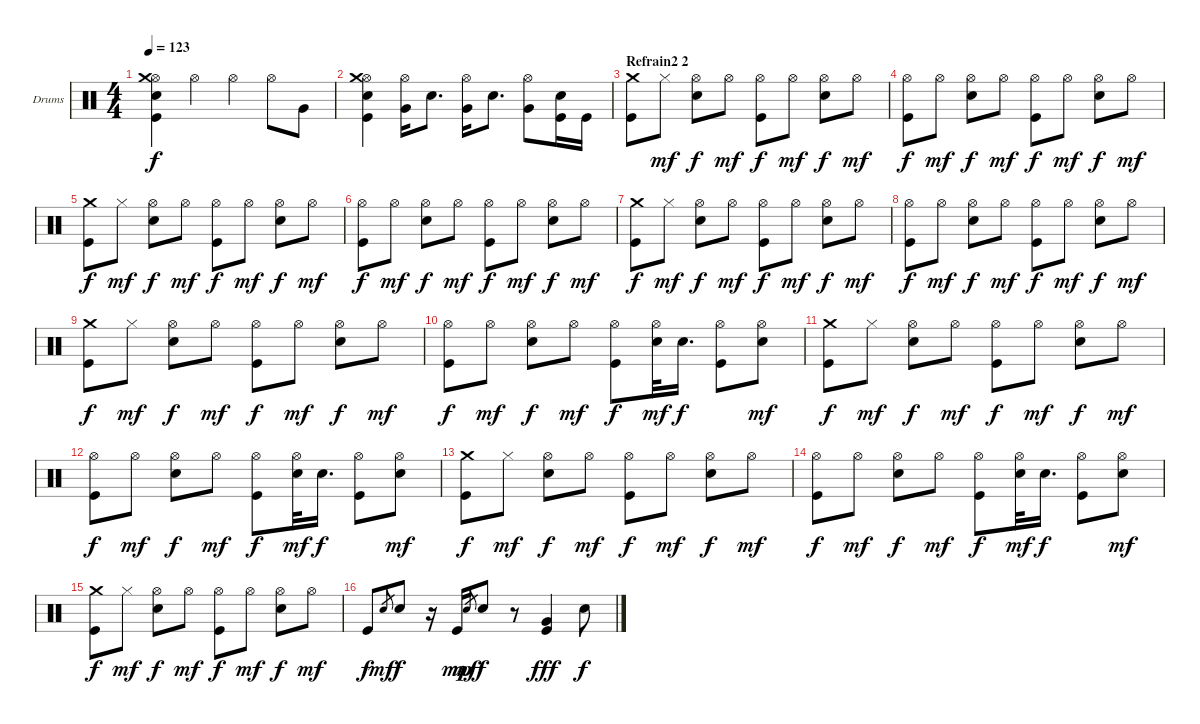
\bracketExtendMode groupsimilarinstruments
\firstSystemTrackNameOrientation horizontal
\otherSystemsTrackNameOrientation horizontal
\track ("Drumkit" "Drums") {instrument percussion}
\staff {score}
\articulation defaults
\ts (4 4)
\tempo 123
\clef neutral
\ks c
("Hi-Hat (open)" "Crash medium (hit)" "Snare (hit) 2" "Kick (hit)").4{dy f} "Hi-Hat (open)".4 "Hi-Hat (open)".4 "Hi-Hat (open)".8 "Very Low Tom (hit)".8 |
("Hi-Hat (open)" "Crash medium (hit)" "Snare (hit) 2" "Kick (hit)").4 ("Hi-Hat (open)" "Very Low Tom (hit)").16 "Snare (hit) 2".8{d} ("Hi-Hat (open)" "Very Low Tom (hit)").16 "Snare (hit) 2".8{d} ("Hi-Hat (open)" "Very Low Tom (hit)").8 ("Snare (hit) 2" "Kick (hit)").16 "Kick (hit)".16 |
\section ("" "Refrain2 2")
("Crash medium (hit)" "Kick (hit)").8 "Hi-Hat (closed)".8{dy mf} ("Hi-Hat (open)" "Snare (hit) 2").8{dy f} "Hi-Hat (open)".8{dy mf} ("Hi-Hat (open)" "Kick (hit)").8{dy f} "Hi-Hat (open)".8{dy mf} ("Hi-Hat (open)" "Snare (hit) 2").8{dy f} "Hi-Hat (open)".8{dy mf} |
("Hi-Hat (open)" "Kick (hit)").8{dy f} "Hi-Hat (open)".8{dy mf} ("Hi-Hat (open)" "Snare (hit) 2").8{dy f} "Hi-Hat (open)".8{dy mf} ("Hi-Hat (open)" "Kick (hit)").8{dy f} "Hi-Hat (open)".8{dy mf} ("Hi-Hat (open)" "Snare (hit) 2").8{dy f} "Hi-Hat (open)".8{dy mf} |
("Crash medium (hit)" "Kick (hit)").8{dy f} "Hi-Hat (closed)".8{dy mf} ("Hi-Hat (open)" "Snare (hit) 2").8{dy f} "Hi-Hat (open)".8{dy mf} ("Hi-Hat (open)" "Kick (hit)").8{dy f} "Hi-Hat (open)".8{dy mf} ("Hi-Hat (open)" "Snare (hit) 2").8{dy f} "Hi-Hat (open)".8{dy mf} |
("Hi-Hat (open)" "Kick (hit)").8{dy f} "Hi-Hat (open)".8{dy mf} ("Hi-Hat (open)" "Snare (hit) 2").8{dy f} "Hi-Hat (open)".8{dy mf} ("Hi-Hat (open)" "Kick (hit)").8{dy f} "Hi-Hat (open)".8{dy mf} ("Hi-Hat (open)" "Snare (hit) 2").8{dy f} "Hi-Hat (open)".8{dy mf} |
("Crash medium (hit)" "Kick (hit)").8{dy f} "Hi-Hat (closed)".8{dy mf} ("Hi-Hat (open)" "Snare (hit) 2").8{dy f} "Hi-Hat (open)".8{dy mf} ("Hi-Hat (open)" "Kick (hit)").8{dy f} "Hi-Hat (open)".8{dy mf} ("Hi-Hat (open)" "Snare (hit) 2").8{dy f} "Hi-Hat (open)".8{dy mf} |
("Hi-Hat (open)" "Kick (hit)").8{dy f} "Hi-Hat (open)".8{dy mf} ("Hi-Hat (open)" "Snare (hit) 2").8{dy f} "Hi-Hat (open)".8{dy mf} ("Hi-Hat (open)" "Kick (hit)").8{dy f} "Hi-Hat (open)".8{dy mf} ("Hi-Hat (open)" "Snare (hit) 2").8{dy f} "Hi-Hat (open)".8{dy mf} |
("Crash medium (hit)" "Kick (hit)").8{dy f} "Hi-Hat (closed)".8{dy mf} ("Hi-Hat (open)" "Snare (hit) 2").8{dy f} "Hi-Hat (open)".8{dy mf} ("Hi-Hat (open)" "Kick (hit)").8{dy f} "Hi-Hat (open)".8{dy mf} ("Hi-Hat (open)" "Snare (hit) 2").8{dy f} "Hi-Hat (open)".8{dy mf} |
("Hi-Hat (open)" "Kick (hit)").8{dy f} "Hi-Hat (open)".8{dy mf} ("Hi-Hat (open)" "Snare (hit) 2").8{dy f} "Hi-Hat (open)".8{dy mf} ("Hi-Hat (open)" "Kick (hit)").8{dy f} ("Hi-Hat (open)" "Snare (hit) 2").32{dy mf} "Snare (hit) 2".16{d dy f} ("Hi-Hat (open)" "Kick (hit)").8 ("Hi-Hat (open)" "Snare (hit) 2").8{dy mf} |
("Crash medium (hit)" "Kick (hit)").8{dy f} "Hi-Hat (closed)".8{dy mf} ("Hi-Hat (open)" "Snare (hit) 2").8{dy f} "Hi-Hat (open)".8{dy mf} ("Hi-Hat (open)" "Kick (hit)").8{dy f} "Hi-Hat (open)".8{dy mf} ("Hi-Hat (open)" "Snare (hit) 2").8{dy f} "Hi-Hat (open)".8{dy mf} |
("Hi-Hat (open)" "Kick (hit)").8{dy f} "Hi-Hat (open)".8{dy mf} ("Hi-Hat (open)" "Snare (hit) 2").8{dy f} "Hi-Hat (open)".8{dy mf} ("Hi-Hat (open)" "Kick (hit)").8{dy f} ("Hi-Hat (open)" "Snare (hit) 2").32{dy mf} "Snare (hit) 2".16{d dy f} ("Hi-Hat (open)" "Kick (hit)").8 ("Hi-Hat (open)" "Snare (hit) 2").8{dy mf} |
("Crash medium (hit)" "Kick (hit)").8{dy f} "Hi-Hat (closed)".8{dy mf} ("Hi-Hat (open)" "Snare (hit) 2").8{dy f} "Hi-Hat (open)".8{dy mf} ("Hi-Hat (open)" "Kick (hit)").8{dy f} "Hi-Hat (open)".8{dy mf} ("Hi-Hat (open)" "Snare (hit) 2").8{dy f} "Hi-Hat (open)".8{dy mf} |
("Hi-Hat (open)" "Kick (hit)").8{dy f} "Hi-Hat (open)".8{dy mf} ("Hi-Hat (open)" "Snare (hit) 2").8{dy f} "Hi-Hat (open)".8{dy mf} ("Hi-Hat (open)" "Kick (hit)").8{dy f} ("Hi-Hat (open)" "Snare (hit) 2").32{dy mf} "Snare (hit) 2".16{d dy f} ("Hi-Hat (open)" "Kick (hit)").8 ("Hi-Hat (open)" "Snare (hit) 2").8{dy mf} |
("Crash medium (hit)" "Kick (hit)").8{dy f} "Hi-Hat (closed)".8{dy mf} ("Hi-Hat (open)" "Snare (hit) 2").8{dy f} "Hi-Hat (open)".8{dy mf} ("Hi-Hat (open)" "Kick (hit)").8{dy f} "Hi-Hat (open)".8{dy mf} ("Hi-Hat (open)" "Snare (hit) 2").8{dy f} "Hi-Hat (open)".8{dy mf} |
"Kick (hit)".8{dy f} "Snare (hit) 2".8{gr dy mf} "Snare (hit) 2".8{dy f} r.16 "Kick (hit)".16{dy mp} "Snare (hit) 2".8{gr dy mf} "Snare (hit) 2".8{dy f} r.8 ("Very Low Tom (hit)" "Kick (hit)").4{dy fff} "Snare (hit) 2".8{dy f}
